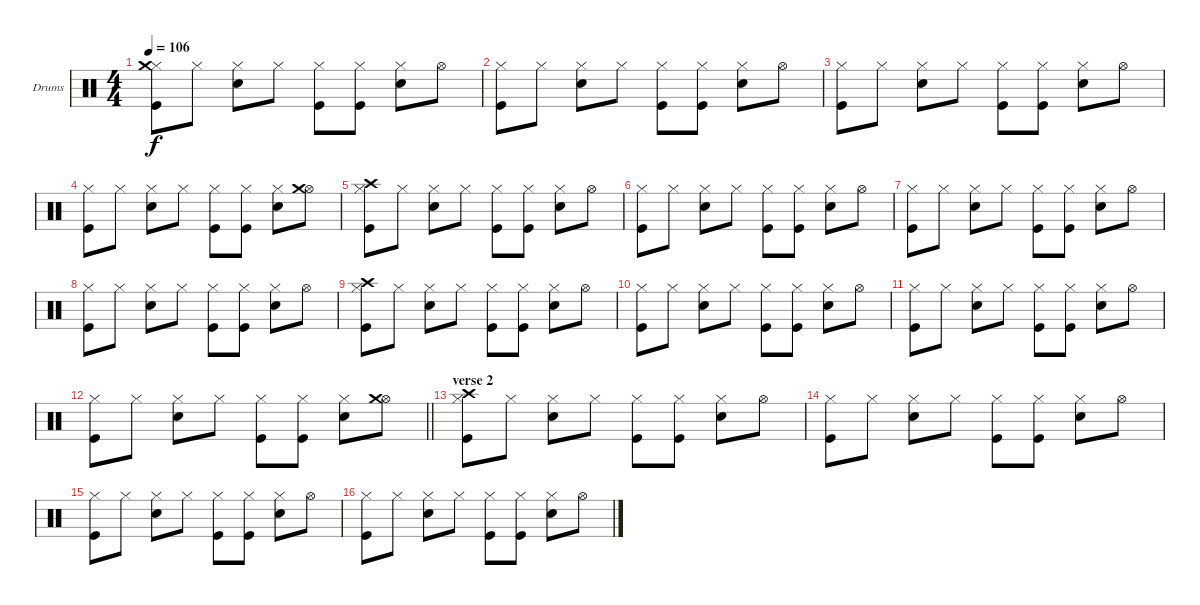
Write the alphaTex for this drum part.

\bracketExtendMode groupsimilarinstruments
\firstSystemTrackNameOrientation horizontal
\otherSystemsTrackNameOrientation horizontal
\track ("Drumkit" "Drums") {instrument percussion}
\staff {score}
\articulation defaults
\ts (4 4)
\tempo 106
\clef neutral
\ks c
("Hi-Hat (closed)" "Crash medium (hit)" "Kick (hit)").8{dy f} "Hi-Hat (closed)".8 ("Hi-Hat (closed)" "Snare (hit) 2").8 "Hi-Hat (closed)".8 ("Hi-Hat (closed)" "Kick (hit)").8 ("Hi-Hat (closed)" "Kick (hit)").8 ("Hi-Hat (closed)" "Snare (hit) 2").8 "Hi-Hat (open)".8 |
("Hi-Hat (closed)" "Kick (hit)").8 "Hi-Hat (closed)".8 ("Hi-Hat (closed)" "Snare (hit) 2").8 "Hi-Hat (closed)".8 ("Hi-Hat (closed)" "Kick (hit)").8 ("Hi-Hat (closed)" "Kick (hit)").8 ("Hi-Hat (closed)" "Snare (hit) 2").8 "Hi-Hat (open)".8 |
("Hi-Hat (closed)" "Kick (hit)").8 "Hi-Hat (closed)".8 ("Hi-Hat (closed)" "Snare (hit) 2").8 "Hi-Hat (closed)".8 ("Hi-Hat (closed)" "Kick (hit)").8 ("Hi-Hat (closed)" "Kick (hit)").8 ("Hi-Hat (closed)" "Snare (hit) 2").8 "Hi-Hat (open)".8 |
("Hi-Hat (closed)" "Kick (hit)").8 "Hi-Hat (closed)".8 ("Hi-Hat (closed)" "Snare (hit) 2").8 "Hi-Hat (closed)".8 ("Hi-Hat (closed)" "Kick (hit)").8 ("Hi-Hat (closed)" "Kick (hit)").8 ("Hi-Hat (closed)" "Snare (hit) 2").8 ("Hi-Hat (open)" "Crash medium (hit)").8 |
("Hi-Hat (closed)" "Crash high (hit)" "Kick (hit)").8 "Hi-Hat (closed)".8 ("Hi-Hat (closed)" "Snare (hit) 2").8 "Hi-Hat (closed)".8 ("Hi-Hat (closed)" "Kick (hit)").8 ("Hi-Hat (closed)" "Kick (hit)").8 ("Hi-Hat (closed)" "Snare (hit) 2").8 "Hi-Hat (open)".8 |
("Hi-Hat (closed)" "Kick (hit)").8 "Hi-Hat (closed)".8 ("Hi-Hat (closed)" "Snare (hit) 2").8 "Hi-Hat (closed)".8 ("Hi-Hat (closed)" "Kick (hit)").8 ("Hi-Hat (closed)" "Kick (hit)").8 ("Hi-Hat (closed)" "Snare (hit) 2").8 "Hi-Hat (open)".8 |
("Hi-Hat (closed)" "Kick (hit)").8 "Hi-Hat (closed)".8 ("Hi-Hat (closed)" "Snare (hit) 2").8 "Hi-Hat (closed)".8 ("Hi-Hat (closed)" "Kick (hit)").8 ("Hi-Hat (closed)" "Kick (hit)").8 ("Hi-Hat (closed)" "Snare (hit) 2").8 "Hi-Hat (open)".8 |
("Hi-Hat (closed)" "Kick (hit)").8 "Hi-Hat (closed)".8 ("Hi-Hat (closed)" "Snare (hit) 2").8 "Hi-Hat (closed)".8 ("Hi-Hat (closed)" "Kick (hit)").8 ("Hi-Hat (closed)" "Kick (hit)").8 ("Hi-Hat (closed)" "Snare (hit) 2").8 "Hi-Hat (open)".8 |
("Hi-Hat (closed)" "Crash high (hit)" "Kick (hit)").8 "Hi-Hat (closed)".8 ("Hi-Hat (closed)" "Snare (hit) 2").8 "Hi-Hat (closed)".8 ("Hi-Hat (closed)" "Kick (hit)").8 ("Hi-Hat (closed)" "Kick (hit)").8 ("Hi-Hat (closed)" "Snare (hit) 2").8 "Hi-Hat (open)".8 |
("Hi-Hat (closed)" "Kick (hit)").8 "Hi-Hat (closed)".8 ("Hi-Hat (closed)" "Snare (hit) 2").8 "Hi-Hat (closed)".8 ("Hi-Hat (closed)" "Kick (hit)").8 ("Hi-Hat (closed)" "Kick (hit)").8 ("Hi-Hat (closed)" "Snare (hit) 2").8 "Hi-Hat (open)".8 |
("Hi-Hat (closed)" "Kick (hit)").8 "Hi-Hat (closed)".8 ("Hi-Hat (closed)" "Snare (hit) 2").8 "Hi-Hat (closed)".8 ("Hi-Hat (closed)" "Kick (hit)").8 ("Hi-Hat (closed)" "Kick (hit)").8 ("Hi-Hat (closed)" "Snare (hit) 2").8 "Hi-Hat (open)".8 |
\barLineRight lightlight
("Hi-Hat (closed)" "Kick (hit)").8 "Hi-Hat (closed)".8 ("Hi-Hat (closed)" "Snare (hit) 2").8 "Hi-Hat (closed)".8 ("Hi-Hat (closed)" "Kick (hit)").8 ("Hi-Hat (closed)" "Kick (hit)").8 ("Hi-Hat (closed)" "Snare (hit) 2").8 ("Hi-Hat (open)" "Crash medium (hit)").8 |
\section ("" "verse 2")
("Hi-Hat (closed)" "Crash high (hit)" "Kick (hit)").8 "Hi-Hat (closed)".8 ("Hi-Hat (closed)" "Snare (hit) 2").8 "Hi-Hat (closed)".8 ("Hi-Hat (closed)" "Kick (hit)").8 ("Hi-Hat (closed)" "Kick (hit)").8 ("Hi-Hat (closed)" "Snare (hit) 2").8 "Hi-Hat (open)".8 |
("Hi-Hat (closed)" "Kick (hit)").8 "Hi-Hat (closed)".8 ("Hi-Hat (closed)" "Snare (hit) 2").8 "Hi-Hat (closed)".8 ("Hi-Hat (closed)" "Kick (hit)").8 ("Hi-Hat (closed)" "Kick (hit)").8 ("Hi-Hat (closed)" "Snare (hit) 2").8 "Hi-Hat (open)".8 |
("Hi-Hat (closed)" "Kick (hit)").8 "Hi-Hat (closed)".8 ("Hi-Hat (closed)" "Snare (hit) 2").8 "Hi-Hat (closed)".8 ("Hi-Hat (closed)" "Kick (hit)").8 ("Hi-Hat (closed)" "Kick (hit)").8 ("Hi-Hat (closed)" "Snare (hit) 2").8 "Hi-Hat (open)".8 |
("Hi-Hat (closed)" "Kick (hit)").8 "Hi-Hat (closed)".8 ("Hi-Hat (closed)" "Snare (hit) 2").8 "Hi-Hat (closed)".8 ("Hi-Hat (closed)" "Kick (hit)").8 ("Hi-Hat (closed)" "Kick (hit)").8 ("Hi-Hat (closed)" "Snare (hit) 2").8 "Hi-Hat (open)".8
